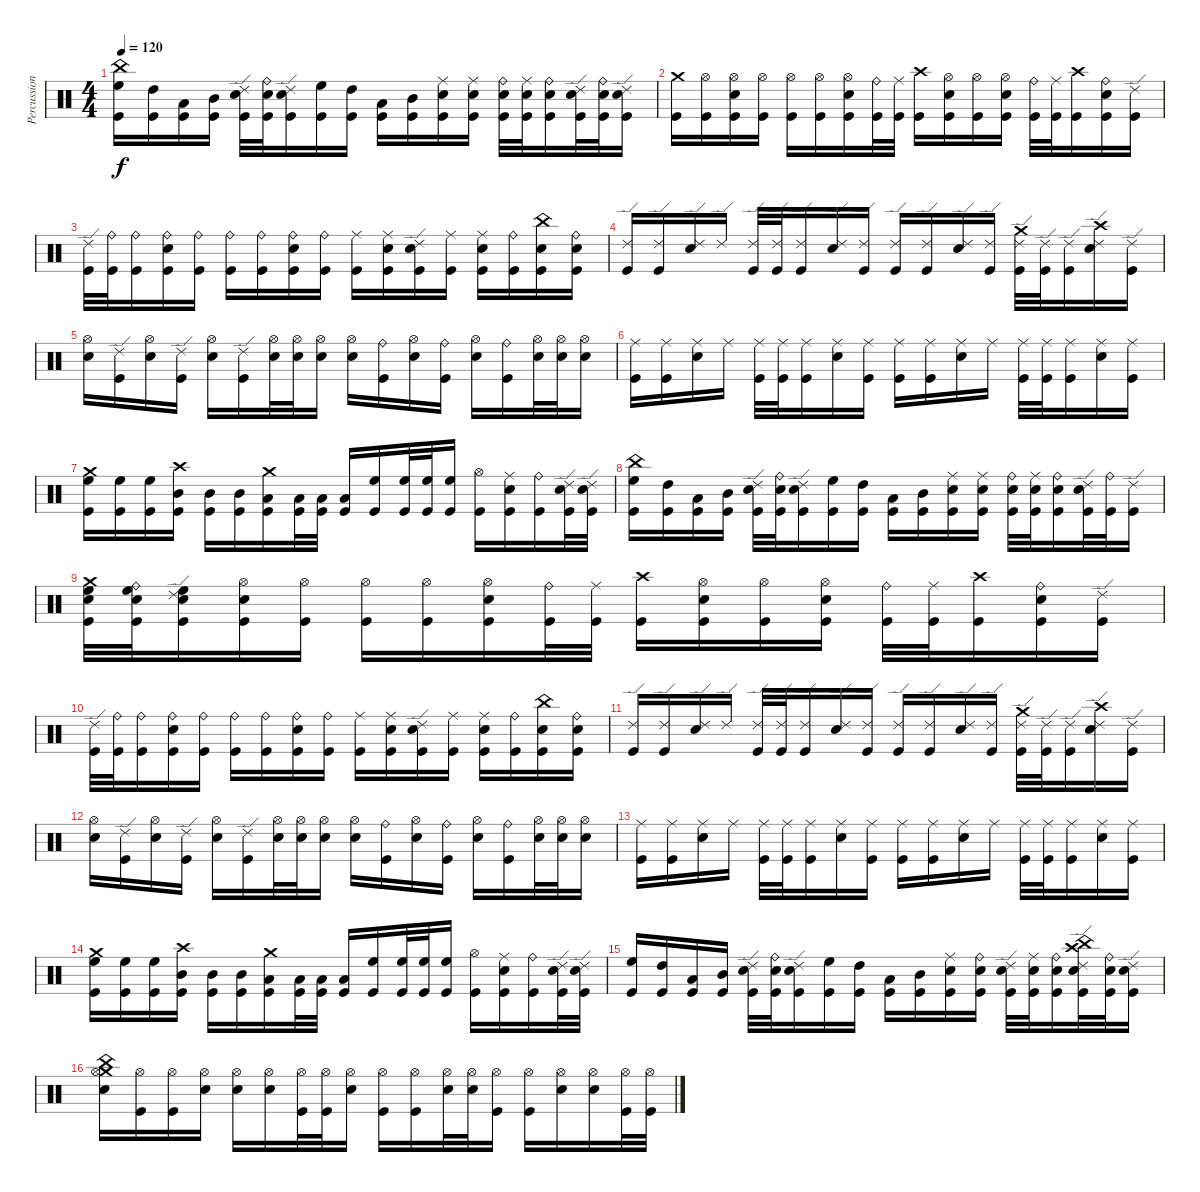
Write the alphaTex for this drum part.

\track ("Percussion" "Percussion") {instrument percussion}
\staff {score}
\articulation defaults
\ts (4 4)
\tempo 120
\clef neutral
\ks c
("China (hit)" "High Floor Tom (hit)" "Kick (hit)").16{dy f} ("High Tom (hit)" "Kick (hit)").16 ("Low Tom (hit)" "Kick (hit)").16 ("Mid Tom (hit)" "Kick (hit)").16 ("Ride (edge) 2" "Snare (hit) 2" "Kick (hit)").32 ("Ride (bell)" "Snare (hit) 2" "Kick (hit)").32 ("Ride (edge) 2" "Snare (hit) 2" "Kick (hit)").16 ("High Floor Tom (hit)" "Kick (hit)").16 ("High Tom (hit)" "Kick (hit)").16 ("Low Tom (hit)" "Kick (hit)").16 ("Mid Tom (hit)" "Kick (hit)").16 ("Ride (middle)" "Snare (hit) 2" "Kick (hit)").16 ("Ride (middle)" "Snare (hit) 2" "Kick (hit)").16 ("Ride (bell)" "Snare (hit) 2" "Kick (hit)").32 ("Ride (middle)" "Snare (hit) 2" "Kick (hit)").32 ("Ride (bell)" "Snare (hit) 2" "Kick (hit)").16 ("Ride (edge) 2" "Snare (hit) 2" "Kick (hit)").32 ("Ride (bell)" "Snare (hit) 2" "Kick (hit)").32 ("Ride (edge) 2" "Snare (hit) 2" "Kick (hit)").16 |
("Crash medium (hit)" "Kick (hit)").16 ("Hi-Hat (open)" "Kick (hit)").16 ("Hi-Hat (open)" "Snare (hit) 2" "Kick (hit)").16 ("Hi-Hat (open)" "Kick (hit)").16 ("Hi-Hat (open)" "Kick (hit)").16 ("Hi-Hat (open)" "Kick (hit)").16 ("Hi-Hat (open)" "Snare (hit) 2" "Kick (hit)").16 ("Ride (bell)" "Kick (hit)").32 ("Ride (middle)" "Kick (hit)").32 ("Crash high (hit)" "Kick (hit)").16 ("Hi-Hat (open)" "Snare (hit) 2" "Kick (hit)").16 ("Hi-Hat (open)" "Kick (hit)").16 ("Hi-Hat (open)" "Snare (hit) 2" "Kick (hit)").16 ("Ride (bell)" "Kick (hit)").32 ("Ride (middle)" "Kick (hit)").32 ("Crash high (hit)" "Kick (hit)").16 ("Ride (bell)" "Snare (hit) 2" "Kick (hit)").16 ("Ride (edge) 2" "Kick (hit)").16 |
("Ride (edge) 2" "Kick (hit)").32 ("Ride (bell)" "Kick (hit)").32 ("Ride (bell)" "Kick (hit)").16 ("Ride (bell)" "Snare (hit) 2" "Kick (hit)").16 ("Ride (bell)" "Kick (hit)").16 ("Ride (bell)" "Kick (hit)").16 ("Ride (bell)" "Kick (hit)").16 ("Ride (bell)" "Snare (hit) 2" "Kick (hit)").16 ("Ride (bell)" "Kick (hit)").16 ("Ride (middle)" "Kick (hit)").16 ("Ride (middle)" "Snare (hit) 2" "Kick (hit)").16 ("Ride (edge) 2" "Snare (hit) 2" "Kick (hit)").16 ("Ride (middle)" "Kick (hit)").16 ("Ride (middle)" "Snare (hit) 2" "Kick (hit)").16 ("Ride (bell)" "Kick (hit)").16 ("China (hit)" "Snare (hit) 2" "Kick (hit)").16 ("Ride (bell)" "Snare (hit) 2" "Kick (hit)").16 |
("Ride (edge) 2" "Kick (hit)").16 ("Ride (edge) 2" "Kick (hit)").16 ("Ride (edge) 2" "Snare (hit) 2").16 "Ride (edge) 2".16 ("Ride (edge) 2" "Kick (hit)").32 ("Ride (edge) 2" "Kick (hit)").32 ("Ride (edge) 2" "Kick (hit)").16 ("Ride (edge) 2" "Snare (hit) 2").16 ("Ride (edge) 2" "Kick (hit)").16 ("Ride (edge) 2" "Kick (hit)").16 ("Ride (edge) 2" "Kick (hit)").16 ("Ride (edge) 2" "Snare (hit) 2").16 ("Ride (edge) 2" "Kick (hit)").16 ("Crash medium (hit)" "Ride (edge) 2" "Kick (hit)").32 ("Ride (edge) 2" "Kick (hit)").32 ("Ride (edge) 2" "Kick (hit)").16 ("Crash high (hit)" "Ride (edge) 2" "Snare (hit) 2").16 ("Ride (edge) 2" "Kick (hit)").16 |
("Hi-Hat (open)" "Snare (hit) 2").16 ("Ride (edge) 2" "Kick (hit)").16 ("Hi-Hat (open)" "Snare (hit) 2").16 ("Ride (edge) 2" "Kick (hit)").16 ("Hi-Hat (open)" "Snare (hit) 2").16 ("Ride (edge) 2" "Kick (hit)").16 ("Hi-Hat (open)" "Snare (hit) 2").32 ("Hi-Hat (open)" "Snare (hit) 2").32 ("Hi-Hat (open)" "Snare (hit) 2").16 ("Hi-Hat (open)" "Snare (hit) 2").16 ("Ride (bell)" "Kick (hit)").16 ("Hi-Hat (open)" "Snare (hit) 2").16 ("Ride (bell)" "Kick (hit)").16 ("Hi-Hat (open)" "Snare (hit) 2").16 ("Ride (bell)" "Kick (hit)").16 ("Hi-Hat (open)" "Snare (hit) 2").32 ("Hi-Hat (open)" "Snare (hit) 2").32 ("Hi-Hat (open)" "Snare (hit) 2").16 |
("Ride (middle)" "Kick (hit)").16 ("Ride (middle)" "Kick (hit)").16 ("Ride (middle)" "Snare (hit) 2").16 "Ride (middle)".16 ("Ride (middle)" "Kick (hit)").32 ("Ride (middle)" "Kick (hit)").32 ("Ride (middle)" "Kick (hit)").16 ("Ride (middle)" "Snare (hit) 2").16 ("Ride (middle)" "Kick (hit)").16 ("Ride (middle)" "Kick (hit)").16 ("Ride (middle)" "Kick (hit)").16 ("Ride (middle)" "Snare (hit) 2").16 "Ride (middle)".16 ("Ride (middle)" "Kick (hit)").32 ("Ride (middle)" "Kick (hit)").32 ("Ride (middle)" "Kick (hit)").16 ("Ride (middle)" "Snare (hit) 2").16 ("Ride (middle)" "Kick (hit)").16 |
("Crash medium (hit)" "High Floor Tom (hit)" "Kick (hit)").16 ("High Floor Tom (hit)" "Kick (hit)").16 ("High Floor Tom (hit)" "Kick (hit)").16 ("Crash high (hit)" "Mid Tom (hit)" "Kick (hit)").16 ("Mid Tom (hit)" "Kick (hit)").16 ("Mid Tom (hit)" "Kick (hit)").16 ("Crash medium (hit)" "Low Tom (hit)" "Kick (hit)").16 ("Low Tom (hit)" "Kick (hit)").32 ("Low Tom (hit)" "Kick (hit)").32 ("Low Tom (hit)" "Kick (hit)").16 ("High Floor Tom (hit)" "Kick (hit)").16 ("High Floor Tom (hit)" "Kick (hit)").32 ("High Floor Tom (hit)" "Kick (hit)").32 ("High Floor Tom (hit)" "Kick (hit)").16 ("Hi-Hat (open)" "Kick (hit)").16 ("Ride (middle)" "Snare (hit) 2" "Kick (hit)").16 ("Ride (bell)" "Kick (hit)").16 ("Ride (edge) 2" "Snare (hit) 2" "Kick (hit)").32 ("Ride (edge) 2" "Snare (hit) 2" "Kick (hit)").32 |
("China (hit)" "High Floor Tom (hit)" "Kick (hit)").16 ("High Tom (hit)" "Kick (hit)").16 ("Low Tom (hit)" "Kick (hit)").16 ("Mid Tom (hit)" "Kick (hit)").16 ("Ride (edge) 2" "Snare (hit) 2" "Kick (hit)").32 ("Ride (bell)" "Snare (hit) 2" "Kick (hit)").32 ("Ride (edge) 2" "Snare (hit) 2" "Kick (hit)").16 ("High Floor Tom (hit)" "Kick (hit)").16 ("High Tom (hit)" "Kick (hit)").16 ("Low Tom (hit)" "Kick (hit)").16 ("Mid Tom (hit)" "Kick (hit)").16 ("Ride (middle)" "Snare (hit) 2" "Kick (hit)").16 ("Ride (middle)" "Snare (hit) 2" "Kick (hit)").16 ("Ride (bell)" "Snare (hit) 2" "Kick (hit)").32 ("Ride (middle)" "Snare (hit) 2" "Kick (hit)").32 ("Ride (bell)" "Snare (hit) 2" "Kick (hit)").16 ("Ride (edge) 2" "Snare (hit) 2" "Kick (hit)").32 ("Ride (bell)" "Kick (hit)").32 ("Ride (edge) 2" "Kick (hit)").16 |
("Crash medium (hit)" "High Floor Tom (hit)" "Snare (hit) 2" "Kick (hit)").32 ("Ride (bell)" "High Floor Tom (hit)" "Snare (hit) 2" "Kick (hit)").32 ("Ride (edge) 2" "High Floor Tom (hit)" "Snare (hit) 2" "Kick (hit)").16 ("Hi-Hat (open)" "Snare (hit) 2" "Kick (hit)").16 ("Hi-Hat (open)" "Kick (hit)").16 ("Hi-Hat (open)" "Kick (hit)").16 ("Hi-Hat (open)" "Kick (hit)").16 ("Hi-Hat (open)" "Snare (hit) 2" "Kick (hit)").16 ("Ride (bell)" "Kick (hit)").32 ("Ride (middle)" "Kick (hit)").32 ("Crash high (hit)" "Kick (hit)").16 ("Hi-Hat (open)" "Snare (hit) 2" "Kick (hit)").16 ("Hi-Hat (open)" "Kick (hit)").16 ("Hi-Hat (open)" "Snare (hit) 2" "Kick (hit)").16 ("Ride (bell)" "Kick (hit)").32 ("Ride (middle)" "Kick (hit)").32 ("Crash high (hit)" "Kick (hit)").16 ("Ride (bell)" "Snare (hit) 2" "Kick (hit)").16 ("Ride (edge) 2" "Kick (hit)").16 |
("Ride (edge) 2" "Kick (hit)").32 ("Ride (bell)" "Kick (hit)").32 ("Ride (bell)" "Kick (hit)").16 ("Ride (bell)" "Snare (hit) 2" "Kick (hit)").16 ("Ride (bell)" "Kick (hit)").16 ("Ride (bell)" "Kick (hit)").16 ("Ride (bell)" "Kick (hit)").16 ("Ride (bell)" "Snare (hit) 2" "Kick (hit)").16 ("Ride (bell)" "Kick (hit)").16 ("Ride (middle)" "Kick (hit)").16 ("Ride (middle)" "Snare (hit) 2" "Kick (hit)").16 ("Ride (edge) 2" "Snare (hit) 2" "Kick (hit)").16 ("Ride (middle)" "Kick (hit)").16 ("Ride (middle)" "Snare (hit) 2" "Kick (hit)").16 ("Ride (bell)" "Kick (hit)").16 ("China (hit)" "Snare (hit) 2" "Kick (hit)").16 ("Ride (bell)" "Snare (hit) 2" "Kick (hit)").16 |
("Ride (edge) 2" "Kick (hit)").16 ("Ride (edge) 2" "Kick (hit)").16 ("Ride (edge) 2" "Snare (hit) 2").16 "Ride (edge) 2".16 ("Ride (edge) 2" "Kick (hit)").32 ("Ride (edge) 2" "Kick (hit)").32 ("Ride (edge) 2" "Kick (hit)").16 ("Ride (edge) 2" "Snare (hit) 2").16 ("Ride (edge) 2" "Kick (hit)").16 ("Ride (edge) 2" "Kick (hit)").16 ("Ride (edge) 2" "Kick (hit)").16 ("Ride (edge) 2" "Snare (hit) 2").16 ("Ride (edge) 2" "Kick (hit)").16 ("Crash medium (hit)" "Ride (edge) 2" "Kick (hit)").32 ("Ride (edge) 2" "Kick (hit)").32 ("Ride (edge) 2" "Kick (hit)").16 ("Crash high (hit)" "Ride (edge) 2" "Snare (hit) 2").16 ("Ride (edge) 2" "Kick (hit)").16 |
("Hi-Hat (open)" "Snare (hit) 2").16 ("Ride (edge) 2" "Kick (hit)").16 ("Hi-Hat (open)" "Snare (hit) 2").16 ("Ride (edge) 2" "Kick (hit)").16 ("Hi-Hat (open)" "Snare (hit) 2").16 ("Ride (edge) 2" "Kick (hit)").16 ("Hi-Hat (open)" "Snare (hit) 2").32 ("Hi-Hat (open)" "Snare (hit) 2").32 ("Hi-Hat (open)" "Snare (hit) 2").16 ("Hi-Hat (open)" "Snare (hit) 2").16 ("Ride (bell)" "Kick (hit)").16 ("Hi-Hat (open)" "Snare (hit) 2").16 ("Ride (bell)" "Kick (hit)").16 ("Hi-Hat (open)" "Snare (hit) 2").16 ("Ride (bell)" "Kick (hit)").16 ("Hi-Hat (open)" "Snare (hit) 2").32 ("Hi-Hat (open)" "Snare (hit) 2").32 ("Hi-Hat (open)" "Snare (hit) 2").16 |
("Ride (middle)" "Kick (hit)").16 ("Ride (middle)" "Kick (hit)").16 ("Ride (middle)" "Snare (hit) 2").16 "Ride (middle)".16 ("Ride (middle)" "Kick (hit)").32 ("Ride (middle)" "Kick (hit)").32 ("Ride (middle)" "Kick (hit)").16 ("Ride (middle)" "Snare (hit) 2").16 ("Ride (middle)" "Kick (hit)").16 ("Ride (middle)" "Kick (hit)").16 ("Ride (middle)" "Kick (hit)").16 ("Ride (middle)" "Snare (hit) 2").16 "Ride (middle)".16 ("Ride (middle)" "Kick (hit)").32 ("Ride (middle)" "Kick (hit)").32 ("Ride (middle)" "Kick (hit)").16 ("Ride (middle)" "Snare (hit) 2").16 ("Ride (middle)" "Kick (hit)").16 |
("Crash medium (hit)" "High Floor Tom (hit)" "Kick (hit)").16 ("High Floor Tom (hit)" "Kick (hit)").16 ("High Floor Tom (hit)" "Kick (hit)").16 ("Crash high (hit)" "Mid Tom (hit)" "Kick (hit)").16 ("Mid Tom (hit)" "Kick (hit)").16 ("Mid Tom (hit)" "Kick (hit)").16 ("Crash medium (hit)" "Low Tom (hit)" "Kick (hit)").16 ("Low Tom (hit)" "Kick (hit)").32 ("Low Tom (hit)" "Kick (hit)").32 ("Low Tom (hit)" "Kick (hit)").16 ("High Floor Tom (hit)" "Kick (hit)").16 ("High Floor Tom (hit)" "Kick (hit)").32 ("High Floor Tom (hit)" "Kick (hit)").32 ("High Floor Tom (hit)" "Kick (hit)").16 ("Hi-Hat (open)" "Kick (hit)").16 ("Ride (middle)" "Snare (hit) 2" "Kick (hit)").16 ("Ride (bell)" "Kick (hit)").16 ("Ride (edge) 2" "Snare (hit) 2" "Kick (hit)").32 ("Ride (edge) 2" "Snare (hit) 2" "Kick (hit)").32 |
("High Floor Tom (hit)" "Kick (hit)").16 ("High Tom (hit)" "Kick (hit)").16 ("Low Tom (hit)" "Kick (hit)").16 ("Mid Tom (hit)" "Kick (hit)").16 ("Ride (edge) 2" "Snare (hit) 2" "Kick (hit)").32 ("Ride (bell)" "Snare (hit) 2" "Kick (hit)").32 ("Ride (edge) 2" "Snare (hit) 2" "Kick (hit)").16 ("High Floor Tom (hit)" "Kick (hit)").16 ("High Tom (hit)" "Kick (hit)").16 ("Low Tom (hit)" "Kick (hit)").16 ("Mid Tom (hit)" "Kick (hit)").16 ("Ride (middle)" "Snare (hit) 2" "Kick (hit)").16 ("Ride (bell)" "Snare (hit) 2" "Kick (hit)").16 ("Ride (edge) 2" "Snare (hit) 2" "Kick (hit)").32 ("Ride (middle)" "Snare (hit) 2" "Kick (hit)").32 ("Ride (bell)" "Snare (hit) 2" "Kick (hit)").16 ("Crash high (hit)" "China (hit)" "Ride (edge) 2" "Snare (hit) 2" "Kick (hit)").32 ("Ride (bell)" "Snare (hit) 2" "Kick (hit)").32 ("Ride (edge) 2" "Snare (hit) 2" "Kick (hit)").16 |
("Crash medium (hit)" "China (hit)" "Hi-Hat (open)" "Snare (hit) 2").16 ("Hi-Hat (open)" "Kick (hit)").16 ("Hi-Hat (open)" "Kick (hit)").16 ("Hi-Hat (open)" "Snare (hit) 2").16 ("Hi-Hat (open)" "Snare (hit) 2").16 ("Hi-Hat (open)" "Snare (hit) 2").16 ("Hi-Hat (open)" "Kick (hit)").32 ("Hi-Hat (open)" "Kick (hit)").32 ("Hi-Hat (open)" "Snare (hit) 2").16 ("Hi-Hat (open)" "Kick (hit)").16 ("Hi-Hat (open)" "Kick (hit)").16 ("Hi-Hat (open)" "Snare (hit) 2").32 ("Hi-Hat (open)" "Snare (hit) 2").32 ("Hi-Hat (open)" "Kick (hit)").16 ("Hi-Hat (open)" "Kick (hit)").16 ("Hi-Hat (open)" "Snare (hit) 2").16 ("Hi-Hat (open)" "Snare (hit) 2").16 ("Hi-Hat (open)" "Kick (hit)").32 ("Hi-Hat (open)" "Kick (hit)").32
